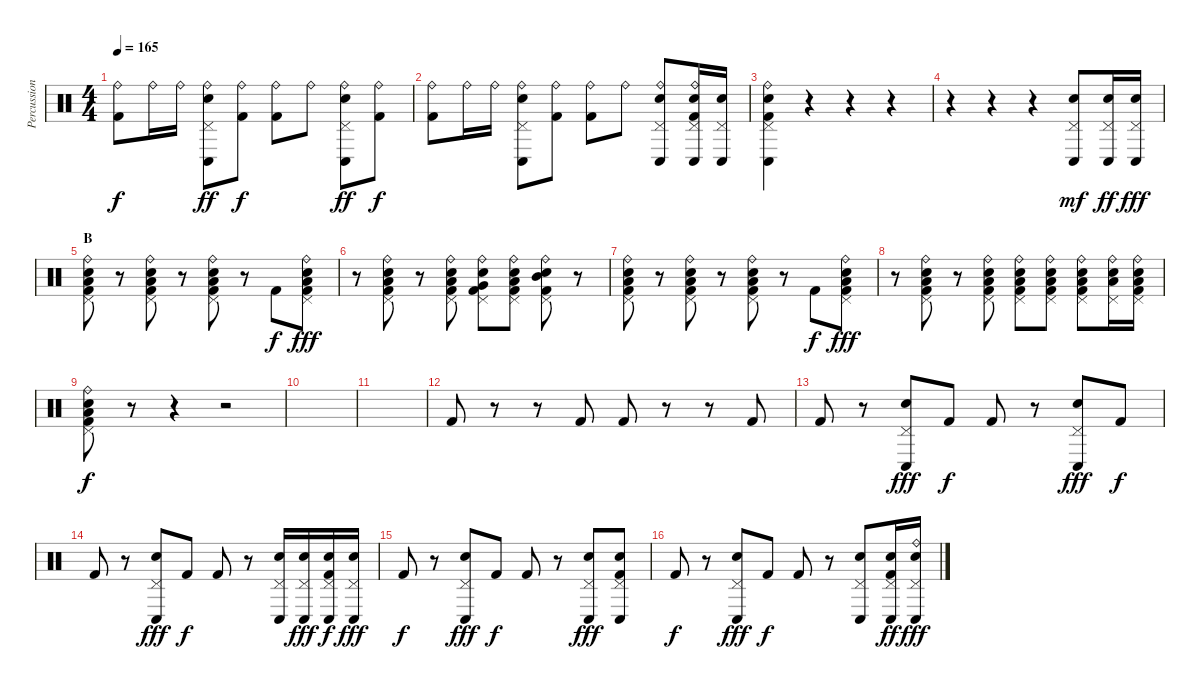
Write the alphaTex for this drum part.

\track ("Percussion" "Percussion") {instrument percussion}
\staff {score}
\articulation defaults
\ts (4 4)
\tempo 165
\clef neutral
\ks c
("Ride (bell)" "Kick (hit) 2").8{dy f} "Ride (bell)".16 "Ride (bell)".16 ("Ride (bell)" "Pedal Hi-Hat (hit)" "Conga low (hit)" "Electric Snare (hit)").8{dy ff} ("Ride (bell)" "Kick (hit) 2").8{dy f} ("Ride (bell)" "Kick (hit) 2").8 "Ride (bell)".8 ("Ride (bell)" "Pedal Hi-Hat (hit)" "Conga low (hit)" "Electric Snare (hit)").8{dy ff} ("Ride (bell)" "Kick (hit) 2").8{dy f} |
("Ride (bell)" "Kick (hit) 2").8 "Ride (bell)".16 "Ride (bell)".16 ("Ride (bell)" "Pedal Hi-Hat (hit)" "Conga low (hit)" "Electric Snare (hit)").8 ("Ride (bell)" "Kick (hit) 2").8 ("Ride (bell)" "Kick (hit) 2").8 "Ride (bell)".8 ("Ride (bell)" "Pedal Hi-Hat (hit)" "Conga low (hit)" "Electric Snare (hit)").8 ("Ride (bell)" "Pedal Hi-Hat (hit)" "Conga low (hit)" "Electric Snare (hit)" "Kick (hit) 2").16 ("Pedal Hi-Hat (hit)" "Conga low (hit)" "Electric Snare (hit)").16 |
("Ride (bell)" "Pedal Hi-Hat (hit)" "Conga low (hit)" "Electric Snare (hit)" "Kick (hit) 2").4 r.4 r.4 r.4 |
r.4 r.4 r.4 ("Pedal Hi-Hat (hit)" "Conga low (hit)" "Electric Snare (hit)").8{dy mf} ("Pedal Hi-Hat (hit)" "Conga low (hit)" "Electric Snare (hit)").16{dy ff} ("Pedal Hi-Hat (hit)" "Conga low (hit)" "Electric Snare (hit)").16{dy fff} |
\section ("" "B")
("Ride (bell)" "Pedal Hi-Hat (hit)" "Low Floor Tom (hit)" "Electric Snare (hit)" "Kick (hit) 2").8 r.8 ("Ride (bell)" "Pedal Hi-Hat (hit)" "Low Floor Tom (hit)" "Electric Snare (hit)" "Kick (hit) 2").8 r.8 ("Ride (bell)" "Pedal Hi-Hat (hit)" "Low Floor Tom (hit)" "Electric Snare (hit)" "Kick (hit) 2").8 r.8 "Kick (hit) 2".8{dy f} ("Ride (bell)" "Pedal Hi-Hat (hit)" "Low Floor Tom (hit)" "Electric Snare (hit)" "Kick (hit) 2").8{dy fff} |
r.8 ("Ride (bell)" "Pedal Hi-Hat (hit)" "Low Floor Tom (hit)" "Electric Snare (hit)" "Kick (hit) 2").8 r.8 ("Ride (bell)" "Pedal Hi-Hat (hit)" "Low Floor Tom (hit)" "Electric Snare (hit)" "Kick (hit) 2").8 ("Ride (bell)" "Pedal Hi-Hat (hit)" "Very Low Tom (hit)" "Electric Snare (hit)" "Kick (hit) 2").8 ("Ride (bell)" "Pedal Hi-Hat (hit)" "Low Tom (hit)" "Electric Snare (hit)" "Kick (hit) 2").8 ("Ride (bell)" "Pedal Hi-Hat (hit)" "Mid Tom (hit)" "Electric Snare (hit)" "Kick (hit) 2").8 r.8 |
("Ride (bell)" "Pedal Hi-Hat (hit)" "Low Floor Tom (hit)" "Electric Snare (hit)" "Kick (hit) 2").8 r.8 ("Ride (bell)" "Pedal Hi-Hat (hit)" "Low Floor Tom (hit)" "Electric Snare (hit)" "Kick (hit) 2").8 r.8 ("Ride (bell)" "Pedal Hi-Hat (hit)" "Low Floor Tom (hit)" "Electric Snare (hit)" "Kick (hit) 2").8 r.8 "Kick (hit) 2".8{dy f} ("Ride (bell)" "Pedal Hi-Hat (hit)" "Low Floor Tom (hit)" "Electric Snare (hit)" "Kick (hit) 2").8{dy fff} |
r.8 ("Ride (bell)" "Pedal Hi-Hat (hit)" "Low Floor Tom (hit)" "Electric Snare (hit)" "Kick (hit) 2").8 r.8 ("Ride (bell)" "Pedal Hi-Hat (hit)" "Low Floor Tom (hit)" "Electric Snare (hit)" "Kick (hit) 2").8 ("Ride (bell)" "Pedal Hi-Hat (hit)" "Low Floor Tom (hit)" "Electric Snare (hit)" "Kick (hit) 2").8 ("Ride (bell)" "Pedal Hi-Hat (hit)" "Low Floor Tom (hit)" "Electric Snare (hit)" "Kick (hit) 2").8 ("Ride (bell)" "Pedal Hi-Hat (hit)" "Low Floor Tom (hit)" "Electric Snare (hit)" "Kick (hit) 2").8 ("Ride (bell)" "Pedal Hi-Hat (hit)" "Low Floor Tom (hit)" "Electric Snare (hit)").16 ("Ride (bell)" "Pedal Hi-Hat (hit)" "Low Floor Tom (hit)" "Electric Snare (hit)" "Kick (hit) 2").16 |
("Ride (bell)" "Pedal Hi-Hat (hit)" "Low Floor Tom (hit)" "Electric Snare (hit)" "Kick (hit) 2").8{dy f} r.8 r.4 r.2 |
|
|
"Kick (hit) 2".8 r.8 r.8 "Kick (hit) 2".8 "Kick (hit) 2".8 r.8 r.8 "Kick (hit) 2".8 |
"Kick (hit) 2".8 r.8 ("Pedal Hi-Hat (hit)" "Conga low (hit)" "Electric Snare (hit)").8{dy fff} "Kick (hit) 2".8{dy f} "Kick (hit) 2".8 r.8 ("Pedal Hi-Hat (hit)" "Conga low (hit)" "Electric Snare (hit)").8{dy fff} "Kick (hit) 2".8{dy f} |
"Kick (hit) 2".8 r.8 ("Pedal Hi-Hat (hit)" "Conga low (hit)" "Electric Snare (hit)").8{dy fff} "Kick (hit) 2".8{dy f} "Kick (hit) 2".8 r.8 ("Pedal Hi-Hat (hit)" "Conga low (hit)" "Electric Snare (hit)").16 ("Pedal Hi-Hat (hit)" "Conga low (hit)" "Electric Snare (hit)").16{dy fff} ("Pedal Hi-Hat (hit)" "Conga low (hit)" "Electric Snare (hit)" "Kick (hit) 2").16{dy f} ("Pedal Hi-Hat (hit)" "Conga low (hit)" "Electric Snare (hit)").16{dy fff} |
"Kick (hit) 2".8{dy f} r.8 ("Pedal Hi-Hat (hit)" "Conga low (hit)" "Electric Snare (hit)").8{dy fff} "Kick (hit) 2".8{dy f} "Kick (hit) 2".8 r.8 ("Pedal Hi-Hat (hit)" "Conga low (hit)" "Electric Snare (hit)").8{dy fff} ("Pedal Hi-Hat (hit)" "Conga low (hit)" "Electric Snare (hit)" "Kick (hit) 2").8 |
"Kick (hit) 2".8{dy f} r.8 ("Pedal Hi-Hat (hit)" "Conga low (hit)" "Electric Snare (hit)").8{dy fff} "Kick (hit) 2".8{dy f} "Kick (hit) 2".8 r.8 ("Pedal Hi-Hat (hit)" "Conga low (hit)" "Electric Snare (hit)").8 ("Pedal Hi-Hat (hit)" "Conga low (hit)" "Electric Snare (hit)" "Kick (hit) 2").16{dy ff} ("Ride (bell)" "Pedal Hi-Hat (hit)" "Conga low (hit)" "Electric Snare (hit)").16{dy fff}
